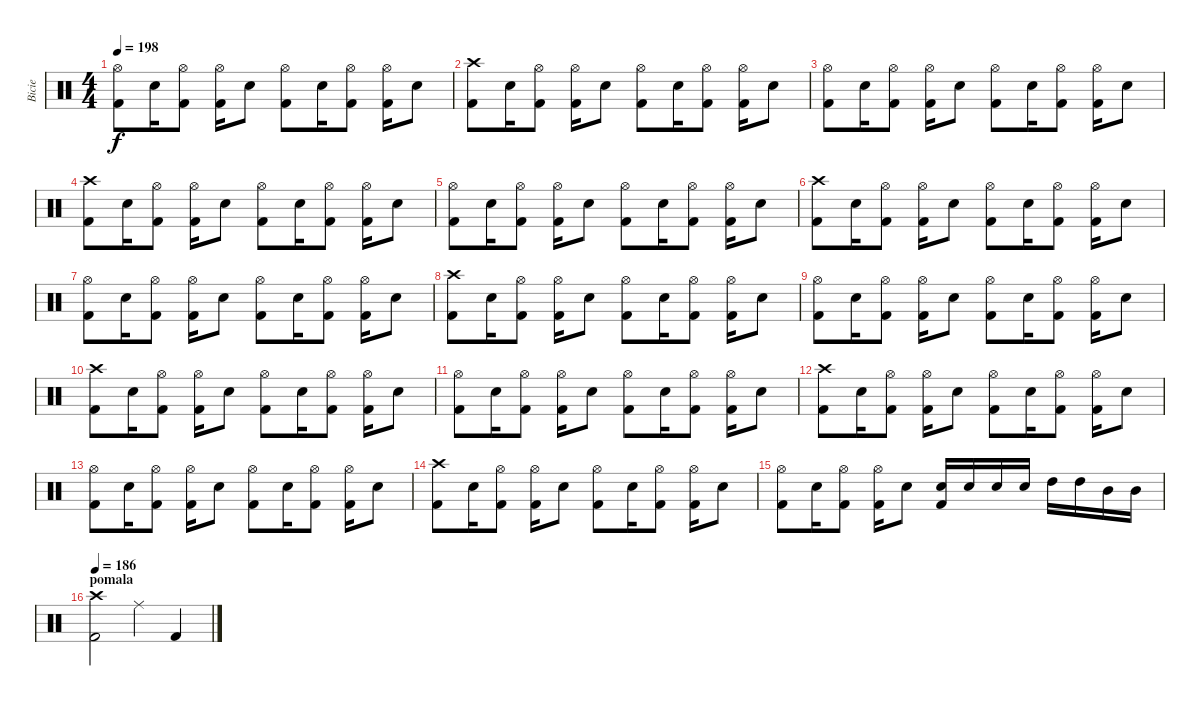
\track ("Bicie" "Bicie") {instrument percussion}
\staff {score}
\articulation defaults
\ts (4 4)
\tempo 198
\clef neutral
\ks c
("Hi-Hat (open)" "Kick (hit) 2").8{dy f} "Electric Snare (hit)".16 ("Hi-Hat (open)" "Kick (hit) 2").8 ("Hi-Hat (open)" "Kick (hit) 2").16 "Electric Snare (hit)".8 ("Hi-Hat (open)" "Kick (hit) 2").8 "Electric Snare (hit)".16 ("Hi-Hat (open)" "Kick (hit) 2").8 ("Hi-Hat (open)" "Kick (hit) 2").16 "Electric Snare (hit)".8 |
("Crash high (hit)" "Kick (hit) 2").8 "Electric Snare (hit)".16 ("Hi-Hat (open)" "Kick (hit) 2").8 ("Hi-Hat (open)" "Kick (hit) 2").16 "Electric Snare (hit)".8 ("Hi-Hat (open)" "Kick (hit) 2").8 "Electric Snare (hit)".16 ("Hi-Hat (open)" "Kick (hit) 2").8 ("Hi-Hat (open)" "Kick (hit) 2").16 "Electric Snare (hit)".8 |
("Hi-Hat (open)" "Kick (hit) 2").8 "Electric Snare (hit)".16 ("Hi-Hat (open)" "Kick (hit) 2").8 ("Hi-Hat (open)" "Kick (hit) 2").16 "Electric Snare (hit)".8 ("Hi-Hat (open)" "Kick (hit) 2").8 "Electric Snare (hit)".16 ("Hi-Hat (open)" "Kick (hit) 2").8 ("Hi-Hat (open)" "Kick (hit) 2").16 "Electric Snare (hit)".8 |
("Crash high (hit)" "Kick (hit) 2").8 "Electric Snare (hit)".16 ("Hi-Hat (open)" "Kick (hit) 2").8 ("Hi-Hat (open)" "Kick (hit) 2").16 "Electric Snare (hit)".8 ("Hi-Hat (open)" "Kick (hit) 2").8 "Electric Snare (hit)".16 ("Hi-Hat (open)" "Kick (hit) 2").8 ("Hi-Hat (open)" "Kick (hit) 2").16 "Electric Snare (hit)".8 |
("Hi-Hat (open)" "Kick (hit) 2").8 "Electric Snare (hit)".16 ("Hi-Hat (open)" "Kick (hit) 2").8 ("Hi-Hat (open)" "Kick (hit) 2").16 "Electric Snare (hit)".8 ("Hi-Hat (open)" "Kick (hit) 2").8 "Electric Snare (hit)".16 ("Hi-Hat (open)" "Kick (hit) 2").8 ("Hi-Hat (open)" "Kick (hit) 2").16 "Electric Snare (hit)".8 |
("Crash high (hit)" "Kick (hit) 2").8 "Electric Snare (hit)".16 ("Hi-Hat (open)" "Kick (hit) 2").8 ("Hi-Hat (open)" "Kick (hit) 2").16 "Electric Snare (hit)".8 ("Hi-Hat (open)" "Kick (hit) 2").8 "Electric Snare (hit)".16 ("Hi-Hat (open)" "Kick (hit) 2").8 ("Hi-Hat (open)" "Kick (hit) 2").16 "Electric Snare (hit)".8 |
("Hi-Hat (open)" "Kick (hit) 2").8 "Electric Snare (hit)".16 ("Hi-Hat (open)" "Kick (hit) 2").8 ("Hi-Hat (open)" "Kick (hit) 2").16 "Electric Snare (hit)".8 ("Hi-Hat (open)" "Kick (hit) 2").8 "Electric Snare (hit)".16 ("Hi-Hat (open)" "Kick (hit) 2").8 ("Hi-Hat (open)" "Kick (hit) 2").16 "Electric Snare (hit)".8 |
("Crash high (hit)" "Kick (hit) 2").8 "Electric Snare (hit)".16 ("Hi-Hat (open)" "Kick (hit) 2").8 ("Hi-Hat (open)" "Kick (hit) 2").16 "Electric Snare (hit)".8 ("Hi-Hat (open)" "Kick (hit) 2").8 "Electric Snare (hit)".16 ("Hi-Hat (open)" "Kick (hit) 2").8 ("Hi-Hat (open)" "Kick (hit) 2").16 "Electric Snare (hit)".8 |
("Hi-Hat (open)" "Kick (hit) 2").8 "Electric Snare (hit)".16 ("Hi-Hat (open)" "Kick (hit) 2").8 ("Hi-Hat (open)" "Kick (hit) 2").16 "Electric Snare (hit)".8 ("Hi-Hat (open)" "Kick (hit) 2").8 "Electric Snare (hit)".16 ("Hi-Hat (open)" "Kick (hit) 2").8 ("Hi-Hat (open)" "Kick (hit) 2").16 "Electric Snare (hit)".8 |
("Crash high (hit)" "Kick (hit) 2").8 "Electric Snare (hit)".16 ("Hi-Hat (open)" "Kick (hit) 2").8 ("Hi-Hat (open)" "Kick (hit) 2").16 "Electric Snare (hit)".8 ("Hi-Hat (open)" "Kick (hit) 2").8 "Electric Snare (hit)".16 ("Hi-Hat (open)" "Kick (hit) 2").8 ("Hi-Hat (open)" "Kick (hit) 2").16 "Electric Snare (hit)".8 |
("Hi-Hat (open)" "Kick (hit) 2").8 "Electric Snare (hit)".16 ("Hi-Hat (open)" "Kick (hit) 2").8 ("Hi-Hat (open)" "Kick (hit) 2").16 "Electric Snare (hit)".8 ("Hi-Hat (open)" "Kick (hit) 2").8 "Electric Snare (hit)".16 ("Hi-Hat (open)" "Kick (hit) 2").8 ("Hi-Hat (open)" "Kick (hit) 2").16 "Electric Snare (hit)".8 |
("Crash high (hit)" "Kick (hit) 2").8 "Electric Snare (hit)".16 ("Hi-Hat (open)" "Kick (hit) 2").8 ("Hi-Hat (open)" "Kick (hit) 2").16 "Electric Snare (hit)".8 ("Hi-Hat (open)" "Kick (hit) 2").8 "Electric Snare (hit)".16 ("Hi-Hat (open)" "Kick (hit) 2").8 ("Hi-Hat (open)" "Kick (hit) 2").16 "Electric Snare (hit)".8 |
("Hi-Hat (open)" "Kick (hit) 2").8 "Electric Snare (hit)".16 ("Hi-Hat (open)" "Kick (hit) 2").8 ("Hi-Hat (open)" "Kick (hit) 2").16 "Electric Snare (hit)".8 ("Hi-Hat (open)" "Kick (hit) 2").8 "Electric Snare (hit)".16 ("Hi-Hat (open)" "Kick (hit) 2").8 ("Hi-Hat (open)" "Kick (hit) 2").16 "Electric Snare (hit)".8 |
("Crash high (hit)" "Kick (hit) 2").8 "Electric Snare (hit)".16 ("Hi-Hat (open)" "Kick (hit) 2").8 ("Hi-Hat (open)" "Kick (hit) 2").16 "Electric Snare (hit)".8 ("Hi-Hat (open)" "Kick (hit) 2").8 "Electric Snare (hit)".16 ("Hi-Hat (open)" "Kick (hit) 2").8 ("Hi-Hat (open)" "Kick (hit) 2").16 "Electric Snare (hit)".8 |
("Hi-Hat (open)" "Kick (hit) 2").8 "Electric Snare (hit)".16 ("Hi-Hat (open)" "Kick (hit) 2").8 ("Hi-Hat (open)" "Kick (hit) 2").16 "Electric Snare (hit)".8 ("Electric Snare (hit)" "Kick (hit) 2").16 "Electric Snare (hit)".16 "Electric Snare (hit)".16 "Electric Snare (hit)".16 "High Tom (hit)".16 "High Tom (hit)".16 "Mid Tom (hit)".16 "Mid Tom (hit)".16 |
\section ("" "pomala")
\tempo 186
("Crash high (hit)" "Kick (hit) 2").2 "Ride (middle)".4 "Kick (hit) 2".4
